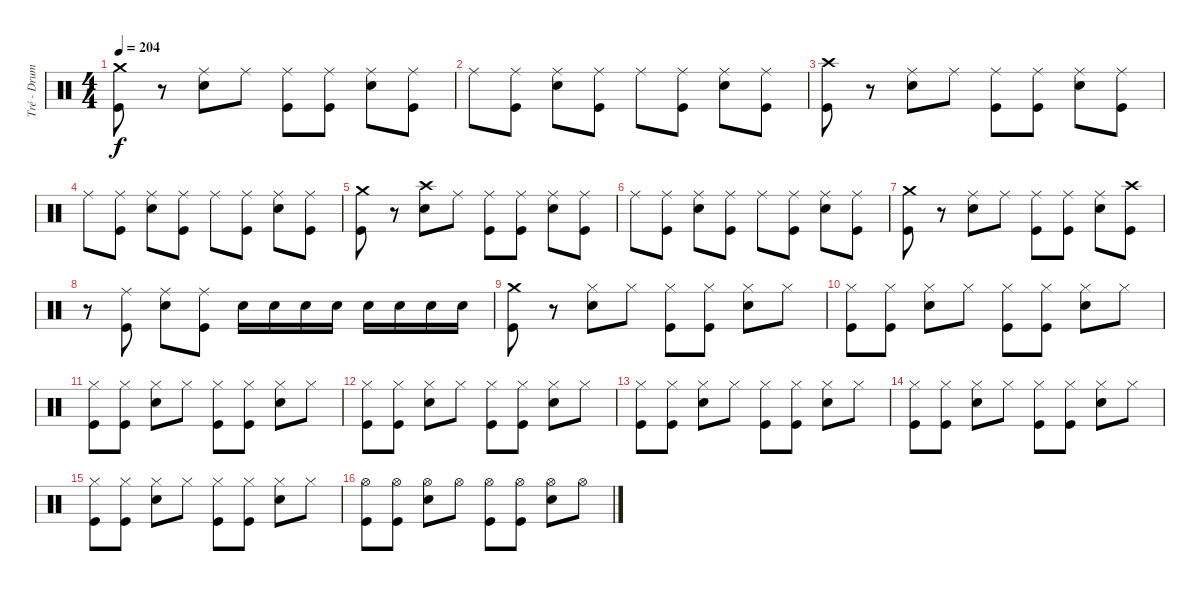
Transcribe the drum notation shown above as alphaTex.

\track ("Tré - Drums" "Tré - Drum") {instrument percussion}
\staff {score}
\articulation defaults
\ts (4 4)
\tempo 204
\clef neutral
\ks c
("Crash medium (hit)" "Kick (hit)").8{dy f} r.8 ("Ride (middle)" "Electric Snare (hit)").8 "Ride (middle)".8 ("Ride (middle)" "Kick (hit)").8 ("Ride (middle)" "Kick (hit)").8 ("Ride (middle)" "Electric Snare (hit)").8 ("Ride (middle)" "Kick (hit)").8 |
"Ride (middle)".8 ("Ride (middle)" "Kick (hit)").8 ("Ride (middle)" "Electric Snare (hit)").8 ("Ride (middle)" "Kick (hit)").8 "Ride (middle)".8 ("Ride (middle)" "Kick (hit)").8 ("Ride (middle)" "Electric Snare (hit)").8 ("Ride (middle)" "Kick (hit)").8 |
("Crash high (hit)" "Kick (hit)").8 r.8 ("Ride (middle)" "Electric Snare (hit)").8 "Ride (middle)".8 ("Ride (middle)" "Kick (hit)").8 ("Ride (middle)" "Kick (hit)").8 ("Ride (middle)" "Electric Snare (hit)").8 ("Ride (middle)" "Kick (hit)").8 |
"Ride (middle)".8 ("Ride (middle)" "Kick (hit)").8 ("Ride (middle)" "Electric Snare (hit)").8 ("Ride (middle)" "Kick (hit)").8 "Ride (middle)".8 ("Ride (middle)" "Kick (hit)").8 ("Ride (middle)" "Electric Snare (hit)").8 ("Ride (middle)" "Kick (hit)").8 |
("Crash medium (hit)" "Kick (hit)").8 r.8 ("Crash high (hit)" "Electric Snare (hit)").8 "Ride (middle)".8 ("Ride (middle)" "Kick (hit)").8 ("Ride (middle)" "Kick (hit)").8 ("Ride (middle)" "Electric Snare (hit)").8 ("Ride (middle)" "Kick (hit)").8 |
"Ride (middle)".8 ("Ride (middle)" "Kick (hit)").8 ("Ride (middle)" "Electric Snare (hit)").8 ("Ride (middle)" "Kick (hit)").8 "Ride (middle)".8 ("Ride (middle)" "Kick (hit)").8 ("Ride (middle)" "Electric Snare (hit)").8 ("Ride (middle)" "Kick (hit)").8 |
("Crash medium (hit)" "Kick (hit)").8 r.8 ("Ride (middle)" "Electric Snare (hit)").8 "Ride (middle)".8 ("Ride (middle)" "Kick (hit)").8 ("Ride (middle)" "Kick (hit)").8 ("Ride (middle)" "Electric Snare (hit)").8 ("Crash high (hit)" "Kick (hit)").8 |
r.8 ("Ride (middle)" "Kick (hit)").8 ("Ride (middle)" "Electric Snare (hit)").8 ("Ride (middle)" "Kick (hit)").8 "Electric Snare (hit)".16 "Electric Snare (hit)".16 "Electric Snare (hit)".16 "Electric Snare (hit)".16 "Electric Snare (hit)".16 "Electric Snare (hit)".16 "Electric Snare (hit)".16 "Electric Snare (hit)".16 |
("Crash medium (hit)" "Kick (hit)").8 r.8 ("Hi-Hat (closed)" "Electric Snare (hit)").8 "Hi-Hat (closed)".8 ("Hi-Hat (closed)" "Kick (hit)").8 ("Hi-Hat (closed)" "Kick (hit)").8 ("Hi-Hat (closed)" "Electric Snare (hit)").8 "Hi-Hat (closed)".8 |
("Hi-Hat (closed)" "Kick (hit)").8 ("Hi-Hat (closed)" "Kick (hit)").8 ("Hi-Hat (closed)" "Electric Snare (hit)").8 "Hi-Hat (closed)".8 ("Hi-Hat (closed)" "Kick (hit)").8 ("Hi-Hat (closed)" "Kick (hit)").8 ("Hi-Hat (closed)" "Electric Snare (hit)").8 "Hi-Hat (closed)".8 |
("Hi-Hat (closed)" "Kick (hit)").8 ("Hi-Hat (closed)" "Kick (hit)").8 ("Hi-Hat (closed)" "Electric Snare (hit)").8 "Hi-Hat (closed)".8 ("Hi-Hat (closed)" "Kick (hit)").8 ("Hi-Hat (closed)" "Kick (hit)").8 ("Hi-Hat (closed)" "Electric Snare (hit)").8 "Hi-Hat (closed)".8 |
("Hi-Hat (closed)" "Kick (hit)").8 ("Hi-Hat (closed)" "Kick (hit)").8 ("Hi-Hat (closed)" "Electric Snare (hit)").8 "Hi-Hat (closed)".8 ("Hi-Hat (closed)" "Kick (hit)").8 ("Hi-Hat (closed)" "Kick (hit)").8 ("Hi-Hat (closed)" "Electric Snare (hit)").8 "Hi-Hat (closed)".8 |
("Hi-Hat (closed)" "Kick (hit)").8 ("Hi-Hat (closed)" "Kick (hit)").8 ("Hi-Hat (closed)" "Electric Snare (hit)").8 "Hi-Hat (closed)".8 ("Hi-Hat (closed)" "Kick (hit)").8 ("Hi-Hat (closed)" "Kick (hit)").8 ("Hi-Hat (closed)" "Electric Snare (hit)").8 "Hi-Hat (closed)".8 |
("Hi-Hat (closed)" "Kick (hit)").8 ("Hi-Hat (closed)" "Kick (hit)").8 ("Hi-Hat (closed)" "Electric Snare (hit)").8 "Hi-Hat (closed)".8 ("Hi-Hat (closed)" "Kick (hit)").8 ("Hi-Hat (closed)" "Kick (hit)").8 ("Hi-Hat (closed)" "Electric Snare (hit)").8 "Hi-Hat (closed)".8 |
("Hi-Hat (closed)" "Kick (hit)").8 ("Hi-Hat (closed)" "Kick (hit)").8 ("Hi-Hat (closed)" "Electric Snare (hit)").8 "Hi-Hat (closed)".8 ("Hi-Hat (closed)" "Kick (hit)").8 ("Hi-Hat (closed)" "Kick (hit)").8 ("Hi-Hat (closed)" "Electric Snare (hit)").8 "Hi-Hat (closed)".8 |
("Hi-Hat (open)" "Kick (hit)").8 ("Hi-Hat (open)" "Kick (hit)").8 ("Hi-Hat (open)" "Electric Snare (hit)").8 "Hi-Hat (open)".8 ("Hi-Hat (open)" "Kick (hit)").8 ("Hi-Hat (open)" "Kick (hit)").8 ("Hi-Hat (open)" "Electric Snare (hit)").8 "Hi-Hat (open)".8
